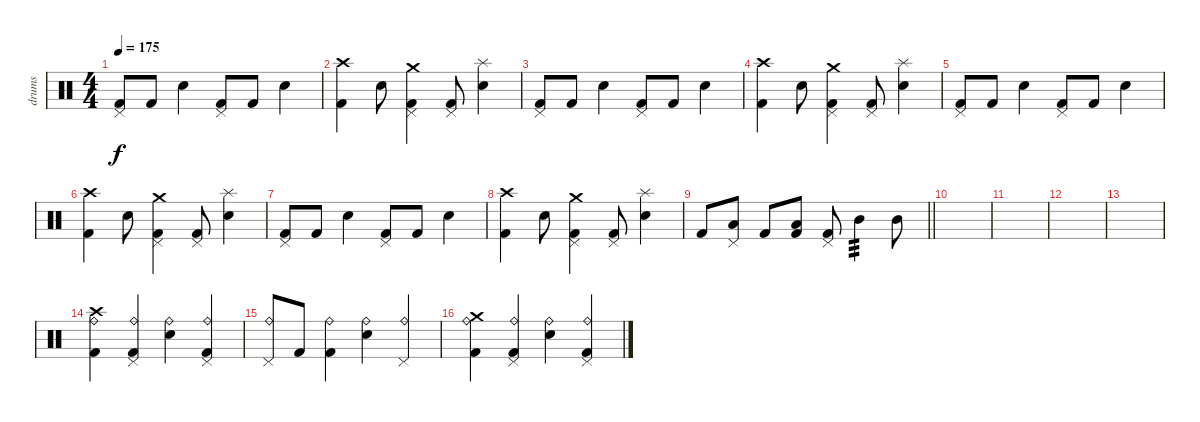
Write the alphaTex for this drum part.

\track ("drums" "drums") {instrument percussion}
\staff {score}
\articulation defaults
\ts (4 4)
\tempo 175
\clef neutral
\ks c
("Pedal Hi-Hat (hit)" "Kick (hit) 2").8{dy f} "Kick (hit) 2".8 "Electric Snare (hit)".4 ("Pedal Hi-Hat (hit)" "Kick (hit) 2").8 "Kick (hit) 2".8 "Electric Snare (hit)".4 |
("Crash high (hit)" "Kick (hit) 2").4 "Electric Snare (hit)".8 ("Crash medium (hit)" "Pedal Hi-Hat (hit)" "Kick (hit) 2").4 ("Pedal Hi-Hat (hit)" "Kick (hit) 2").8 ("Splash (hit)" "Electric Snare (hit)").4 |
("Pedal Hi-Hat (hit)" "Kick (hit) 2").8 "Kick (hit) 2".8 "Electric Snare (hit)".4 ("Pedal Hi-Hat (hit)" "Kick (hit) 2").8 "Kick (hit) 2".8 "Electric Snare (hit)".4 |
("Crash high (hit)" "Kick (hit) 2").4 "Electric Snare (hit)".8 ("Crash medium (hit)" "Pedal Hi-Hat (hit)" "Kick (hit) 2").4 ("Pedal Hi-Hat (hit)" "Kick (hit) 2").8 ("Splash (hit)" "Electric Snare (hit)").4 |
("Pedal Hi-Hat (hit)" "Kick (hit) 2").8 "Kick (hit) 2".8 "Electric Snare (hit)".4 ("Pedal Hi-Hat (hit)" "Kick (hit) 2").8 "Kick (hit) 2".8 "Electric Snare (hit)".4 |
("Crash high (hit)" "Kick (hit) 2").4 "Electric Snare (hit)".8 ("Crash medium (hit)" "Pedal Hi-Hat (hit)" "Kick (hit) 2").4 ("Pedal Hi-Hat (hit)" "Kick (hit) 2").8 ("Splash (hit)" "Electric Snare (hit)").4 |
("Pedal Hi-Hat (hit)" "Kick (hit) 2").8 "Kick (hit) 2".8 "Electric Snare (hit)".4 ("Pedal Hi-Hat (hit)" "Kick (hit) 2").8 "Kick (hit) 2".8 "Electric Snare (hit)".4 |
("Crash high (hit)" "Kick (hit) 2").4 "Electric Snare (hit)".8 ("Crash medium (hit)" "Pedal Hi-Hat (hit)" "Kick (hit) 2").4 ("Pedal Hi-Hat (hit)" "Kick (hit) 2").8 ("Splash (hit)" "Electric Snare (hit)").4 |
\barLineRight lightlight "Kick (hit) 2".8
("Low Tom (hit)" "Pedal Hi-Hat (hit)").8 "Kick (hit) 2".8 ("Low Tom (hit)" "Kick (hit) 2").8 ("Pedal Hi-Hat (hit)" "Kick (hit) 2").8 "Mid Tom (hit)".4{tp 3} "Mid Tom (hit)".8 |
|
|
|
|
("Crash high (hit)" "Ride (bell)" "Kick (hit) 2").4{volume 4} ("Ride (bell)" "Pedal Hi-Hat (hit)" "Kick (hit) 2").4{volume 16} ("Ride (bell)" "Electric Snare (hit)").4 ("Ride (bell)" "Pedal Hi-Hat (hit)" "Kick (hit) 2").4 |
("Ride (bell)" "Pedal Hi-Hat (hit)").8 "Kick (hit) 2".8 ("Ride (bell)" "Kick (hit) 2").4 ("Ride (bell)" "Electric Snare (hit)").4 ("Ride (bell)" "Pedal Hi-Hat (hit)").4 |
("Crash medium (hit)" "Ride (bell)" "Kick (hit) 2").4 ("Ride (bell)" "Pedal Hi-Hat (hit)" "Kick (hit) 2").4 ("Ride (bell)" "Electric Snare (hit)").4 ("Ride (bell)" "Pedal Hi-Hat (hit)" "Kick (hit) 2").4
